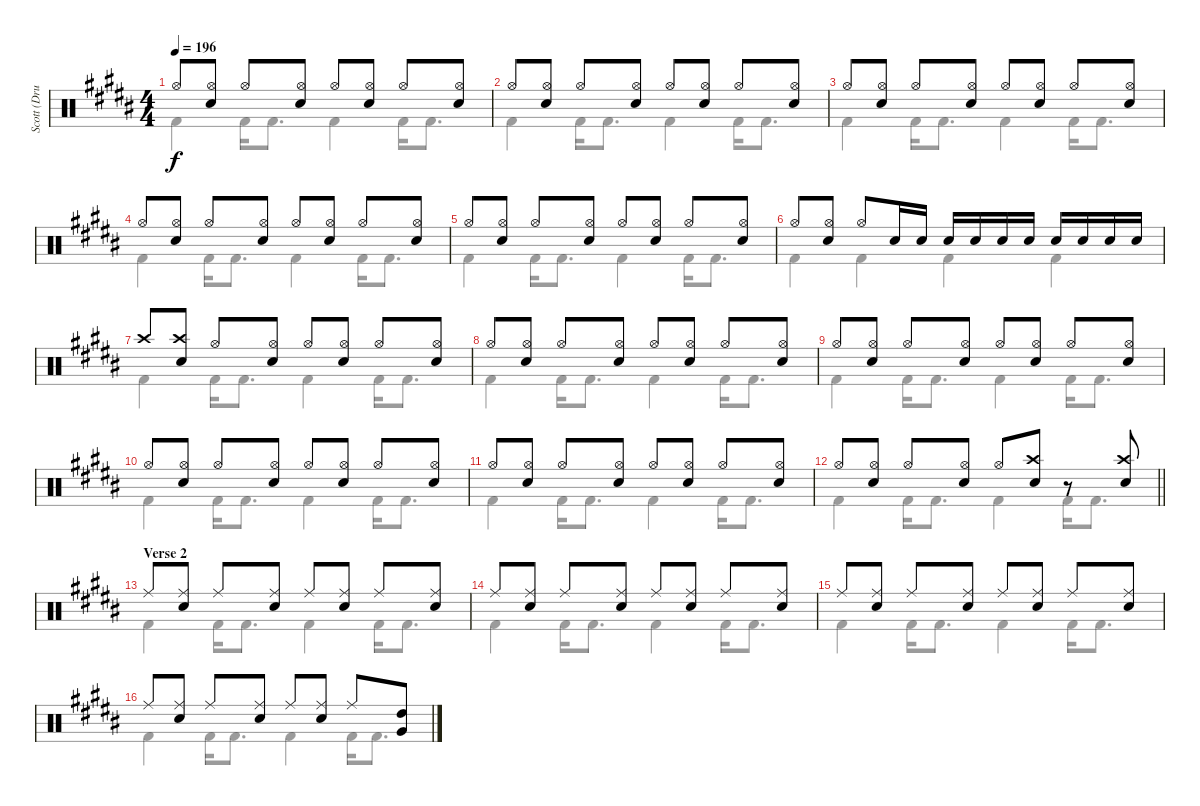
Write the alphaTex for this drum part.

\track ("Scott (Drums)" "Scott (Dru") {instrument percussion}
\staff {score}
\articulation defaults
\voice
\ts (4 4)
\tempo 196
\clef neutral
\ks b "Hi-Hat (open)".8{dy f}
("Hi-Hat (open)" "Electric Snare (hit)").8 "Hi-Hat (open)".8 ("Hi-Hat (open)" "Electric Snare (hit)").8 "Hi-Hat (open)".8 ("Hi-Hat (open)" "Electric Snare (hit)").8 "Hi-Hat (open)".8 ("Hi-Hat (open)" "Electric Snare (hit)").8 |
"Hi-Hat (open)".8 ("Hi-Hat (open)" "Electric Snare (hit)").8 "Hi-Hat (open)".8 ("Hi-Hat (open)" "Electric Snare (hit)").8 "Hi-Hat (open)".8 ("Hi-Hat (open)" "Electric Snare (hit)").8 "Hi-Hat (open)".8 ("Hi-Hat (open)" "Electric Snare (hit)").8 |
"Hi-Hat (open)".8 ("Hi-Hat (open)" "Electric Snare (hit)").8 "Hi-Hat (open)".8 ("Hi-Hat (open)" "Electric Snare (hit)").8 "Hi-Hat (open)".8 ("Hi-Hat (open)" "Electric Snare (hit)").8 "Hi-Hat (open)".8 ("Hi-Hat (open)" "Electric Snare (hit)").8 |
"Hi-Hat (open)".8 ("Hi-Hat (open)" "Electric Snare (hit)").8 "Hi-Hat (open)".8 ("Hi-Hat (open)" "Electric Snare (hit)").8 "Hi-Hat (open)".8 ("Hi-Hat (open)" "Electric Snare (hit)").8 "Hi-Hat (open)".8 ("Hi-Hat (open)" "Electric Snare (hit)").8 |
"Hi-Hat (open)".8 ("Hi-Hat (open)" "Electric Snare (hit)").8 "Hi-Hat (open)".8 ("Hi-Hat (open)" "Electric Snare (hit)").8 "Hi-Hat (open)".8 ("Hi-Hat (open)" "Electric Snare (hit)").8 "Hi-Hat (open)".8 ("Hi-Hat (open)" "Electric Snare (hit)").8 |
"Hi-Hat (open)".8 ("Hi-Hat (open)" "Electric Snare (hit)").8 "Hi-Hat (open)".8 "Electric Snare (hit)".16 "Electric Snare (hit)".16 "Electric Snare (hit)".16 "Electric Snare (hit)".16 "Electric Snare (hit)".16 "Electric Snare (hit)".16 "Electric Snare (hit)".16 "Electric Snare (hit)".16 "Electric Snare (hit)".16 "Electric Snare (hit)".16 |
"Crash high (hit)".8 ("Crash high (hit)" "Electric Snare (hit)").8 "Hi-Hat (open)".8 ("Hi-Hat (open)" "Electric Snare (hit)").8 "Hi-Hat (open)".8 ("Hi-Hat (open)" "Electric Snare (hit)").8 "Hi-Hat (open)".8 ("Hi-Hat (open)" "Electric Snare (hit)").8 |
"Hi-Hat (open)".8 ("Hi-Hat (open)" "Electric Snare (hit)").8 "Hi-Hat (open)".8 ("Hi-Hat (open)" "Electric Snare (hit)").8 "Hi-Hat (open)".8 ("Hi-Hat (open)" "Electric Snare (hit)").8 "Hi-Hat (open)".8 ("Hi-Hat (open)" "Electric Snare (hit)").8 |
"Hi-Hat (open)".8 ("Hi-Hat (open)" "Electric Snare (hit)").8 "Hi-Hat (open)".8 ("Hi-Hat (open)" "Electric Snare (hit)").8 "Hi-Hat (open)".8 ("Hi-Hat (open)" "Electric Snare (hit)").8 "Hi-Hat (open)".8 ("Hi-Hat (open)" "Electric Snare (hit)").8 |
"Hi-Hat (open)".8 ("Hi-Hat (open)" "Electric Snare (hit)").8 "Hi-Hat (open)".8 ("Hi-Hat (open)" "Electric Snare (hit)").8 "Hi-Hat (open)".8 ("Hi-Hat (open)" "Electric Snare (hit)").8 "Hi-Hat (open)".8 ("Hi-Hat (open)" "Electric Snare (hit)").8 |
"Hi-Hat (open)".8 ("Hi-Hat (open)" "Electric Snare (hit)").8 "Hi-Hat (open)".8 ("Hi-Hat (open)" "Electric Snare (hit)").8 "Hi-Hat (open)".8 ("Hi-Hat (open)" "Electric Snare (hit)").8 "Hi-Hat (open)".8 ("Hi-Hat (open)" "Electric Snare (hit)").8 |
\barLineRight lightlight "Hi-Hat (open)".8
("Hi-Hat (open)" "Electric Snare (hit)").8 "Hi-Hat (open)".8 ("Hi-Hat (open)" "Electric Snare (hit)").8 "Hi-Hat (open)".8 ("Crash high (hit)" "Electric Snare (hit)").8 r.8 ("Crash high (hit)" "Electric Snare (hit)").8 |
\section ("" "Verse 2")
"Ride (middle)".8 ("Ride (middle)" "Electric Snare (hit)").8 "Ride (middle)".8 ("Ride (middle)" "Electric Snare (hit)").8 "Ride (middle)".8 ("Ride (middle)" "Electric Snare (hit)").8 "Ride (middle)".8 ("Ride (middle)" "Electric Snare (hit)").8 |
"Ride (middle)".8 ("Ride (middle)" "Electric Snare (hit)").8 "Ride (middle)".8 ("Ride (middle)" "Electric Snare (hit)").8 "Ride (middle)".8 ("Ride (middle)" "Electric Snare (hit)").8 "Ride (middle)".8 ("Ride (middle)" "Electric Snare (hit)").8 |
"Ride (middle)".8 ("Ride (middle)" "Electric Snare (hit)").8 "Ride (middle)".8 ("Ride (middle)" "Electric Snare (hit)").8 "Ride (middle)".8 ("Ride (middle)" "Electric Snare (hit)").8 "Ride (middle)".8 ("Ride (middle)" "Electric Snare (hit)").8 |
"Ride (middle)".8 ("Ride (middle)" "Electric Snare (hit)").8 "Ride (middle)".8 ("Ride (middle)" "Electric Snare (hit)").8 "Ride (middle)".8 ("Ride (middle)" "Electric Snare (hit)").8 "Ride (middle)".8 ("High Tom (hit)" "Very Low Tom (hit)").8
\voice
\clef neutral
\ottava regular
\simile none
\ks b "Kick (hit) 2".4{dy f} "Kick (hit) 2".16 "Kick (hit) 2".8{d} "Kick (hit) 2".4 "Kick (hit) 2".16 "Kick (hit) 2".8{d}
|
"Kick (hit) 2".4 "Kick (hit) 2".16 "Kick (hit) 2".8{d} "Kick (hit) 2".4 "Kick (hit) 2".16 "Kick (hit) 2".8{d} |
"Kick (hit) 2".4 "Kick (hit) 2".16 "Kick (hit) 2".8{d} "Kick (hit) 2".4 "Kick (hit) 2".16 "Kick (hit) 2".8{d} |
"Kick (hit) 2".4 "Kick (hit) 2".16 "Kick (hit) 2".8{d} "Kick (hit) 2".4 "Kick (hit) 2".16 "Kick (hit) 2".8{d} |
"Kick (hit) 2".4 "Kick (hit) 2".16 "Kick (hit) 2".8{d} "Kick (hit) 2".4 "Kick (hit) 2".16 "Kick (hit) 2".8{d} |
"Kick (hit) 2".4 "Kick (hit) 2".4 "Kick (hit) 2".4 "Kick (hit) 2".4 |
"Kick (hit) 2".4 "Kick (hit) 2".16 "Kick (hit) 2".8{d} "Kick (hit) 2".4 "Kick (hit) 2".16 "Kick (hit) 2".8{d} |
"Kick (hit) 2".4 "Kick (hit) 2".16 "Kick (hit) 2".8{d} "Kick (hit) 2".4 "Kick (hit) 2".16 "Kick (hit) 2".8{d} |
"Kick (hit) 2".4 "Kick (hit) 2".16 "Kick (hit) 2".8{d} "Kick (hit) 2".4 "Kick (hit) 2".16 "Kick (hit) 2".8{d} |
"Kick (hit) 2".4 "Kick (hit) 2".16 "Kick (hit) 2".8{d} "Kick (hit) 2".4 "Kick (hit) 2".16 "Kick (hit) 2".8{d} |
"Kick (hit) 2".4 "Kick (hit) 2".16 "Kick (hit) 2".8{d} "Kick (hit) 2".4 "Kick (hit) 2".16 "Kick (hit) 2".8{d} |
\barLineRight lightlight "Kick (hit) 2".4 "Kick (hit) 2".16 "Kick (hit) 2".8{d} "Kick (hit) 2".4 "Kick (hit) 2".16 "Kick (hit) 2".8{d}
|
"Kick (hit) 2".4 "Kick (hit) 2".16 "Kick (hit) 2".8{d} "Kick (hit) 2".4 "Kick (hit) 2".16 "Kick (hit) 2".8{d} |
"Kick (hit) 2".4 "Kick (hit) 2".16 "Kick (hit) 2".8{d} "Kick (hit) 2".4 "Kick (hit) 2".16 "Kick (hit) 2".8{d} |
"Kick (hit) 2".4 "Kick (hit) 2".16 "Kick (hit) 2".8{d} "Kick (hit) 2".4 "Kick (hit) 2".16 "Kick (hit) 2".8{d} |
"Kick (hit) 2".4 "Kick (hit) 2".16 "Kick (hit) 2".8{d} "Kick (hit) 2".4 "Kick (hit) 2".16 "Kick (hit) 2".8{d}
